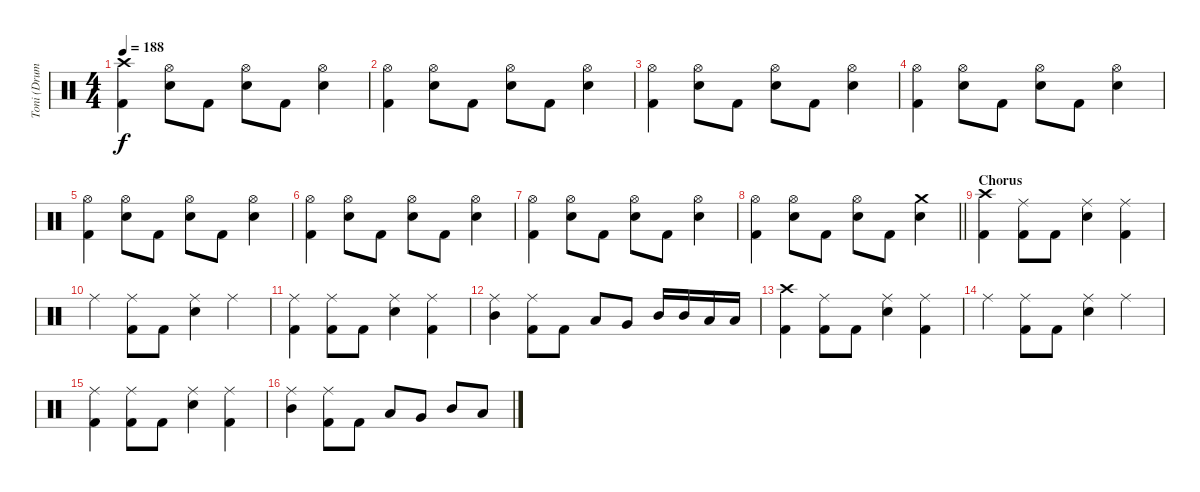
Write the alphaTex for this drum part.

\track ("Toni (Drums)" "Toni (Drum") {instrument percussion}
\staff {score}
\articulation defaults
\ts (4 4)
\tempo 188
\clef neutral
\ks c
("Crash high (hit)" "Kick (hit) 2").4{dy f} ("Hi-Hat (open)" "Electric Snare (hit)").8 "Kick (hit) 2".8 ("Hi-Hat (open)" "Electric Snare (hit)").8 "Kick (hit) 2".8 ("Hi-Hat (open)" "Electric Snare (hit)").4 |
("Hi-Hat (open)" "Kick (hit) 2").4 ("Hi-Hat (open)" "Electric Snare (hit)").8 "Kick (hit) 2".8 ("Hi-Hat (open)" "Electric Snare (hit)").8 "Kick (hit) 2".8 ("Hi-Hat (open)" "Electric Snare (hit)").4 |
("Hi-Hat (open)" "Kick (hit) 2").4 ("Hi-Hat (open)" "Electric Snare (hit)").8 "Kick (hit) 2".8 ("Hi-Hat (open)" "Electric Snare (hit)").8 "Kick (hit) 2".8 ("Hi-Hat (open)" "Electric Snare (hit)").4 |
("Hi-Hat (open)" "Kick (hit) 2").4 ("Hi-Hat (open)" "Electric Snare (hit)").8 "Kick (hit) 2".8 ("Hi-Hat (open)" "Electric Snare (hit)").8 "Kick (hit) 2".8 ("Hi-Hat (open)" "Electric Snare (hit)").4 |
("Hi-Hat (open)" "Kick (hit) 2").4 ("Hi-Hat (open)" "Electric Snare (hit)").8 "Kick (hit) 2".8 ("Hi-Hat (open)" "Electric Snare (hit)").8 "Kick (hit) 2".8 ("Hi-Hat (open)" "Electric Snare (hit)").4 |
("Hi-Hat (open)" "Kick (hit) 2").4 ("Hi-Hat (open)" "Electric Snare (hit)").8 "Kick (hit) 2".8 ("Hi-Hat (open)" "Electric Snare (hit)").8 "Kick (hit) 2".8 ("Hi-Hat (open)" "Electric Snare (hit)").4 |
("Hi-Hat (open)" "Kick (hit) 2").4 ("Hi-Hat (open)" "Electric Snare (hit)").8 "Kick (hit) 2".8 ("Hi-Hat (open)" "Electric Snare (hit)").8 "Kick (hit) 2".8 ("Hi-Hat (open)" "Electric Snare (hit)").4 |
\barLineRight lightlight
("Hi-Hat (open)" "Kick (hit) 2").4 ("Hi-Hat (open)" "Electric Snare (hit)").8 "Kick (hit) 2".8 ("Hi-Hat (open)" "Electric Snare (hit)").8 "Kick (hit) 2".8 ("Crash medium (hit)" "Electric Snare (hit)").4 |
\section ("" "Chorus")
("Crash high (hit)" "Kick (hit) 2").4 ("Ride (middle)" "Kick (hit) 2").8 "Kick (hit) 2".8 ("Ride (middle)" "Electric Snare (hit)").4 ("Ride (middle)" "Kick (hit) 2").4 |
"Ride (middle)".4 ("Ride (middle)" "Kick (hit) 2").8 "Kick (hit) 2".8 ("Ride (middle)" "Electric Snare (hit)").4 "Ride (middle)".4 |
("Ride (middle)" "Kick (hit) 2").4 ("Ride (middle)" "Kick (hit) 2").8 "Kick (hit) 2".8 ("Ride (middle)" "Electric Snare (hit)").4 ("Ride (middle)" "Kick (hit) 2").4 |
("Ride (middle)" "Mid Tom (hit)").4 ("Ride (middle)" "Kick (hit) 2").8 "Kick (hit) 2".8 "Low Tom (hit)".8 "Very Low Tom (hit)".8 "Mid Tom (hit)".16 "Mid Tom (hit)".16 "Low Tom (hit)".16 "Low Tom (hit)".16 |
("Crash high (hit)" "Kick (hit) 2").4 ("Ride (middle)" "Kick (hit) 2").8 "Kick (hit) 2".8 ("Ride (middle)" "Electric Snare (hit)").4 ("Ride (middle)" "Kick (hit) 2").4 |
"Ride (middle)".4 ("Ride (middle)" "Kick (hit) 2").8 "Kick (hit) 2".8 ("Ride (middle)" "Electric Snare (hit)").4 "Ride (middle)".4 |
("Ride (middle)" "Kick (hit) 2").4 ("Ride (middle)" "Kick (hit) 2").8 "Kick (hit) 2".8 ("Ride (middle)" "Electric Snare (hit)").4 ("Ride (middle)" "Kick (hit) 2").4 |
("Ride (middle)" "Mid Tom (hit)").4 ("Ride (middle)" "Kick (hit) 2").8 "Kick (hit) 2".8 "Low Tom (hit)".8 "Very Low Tom (hit)".8 "Mid Tom (hit)".8 "Low Tom (hit)".8
